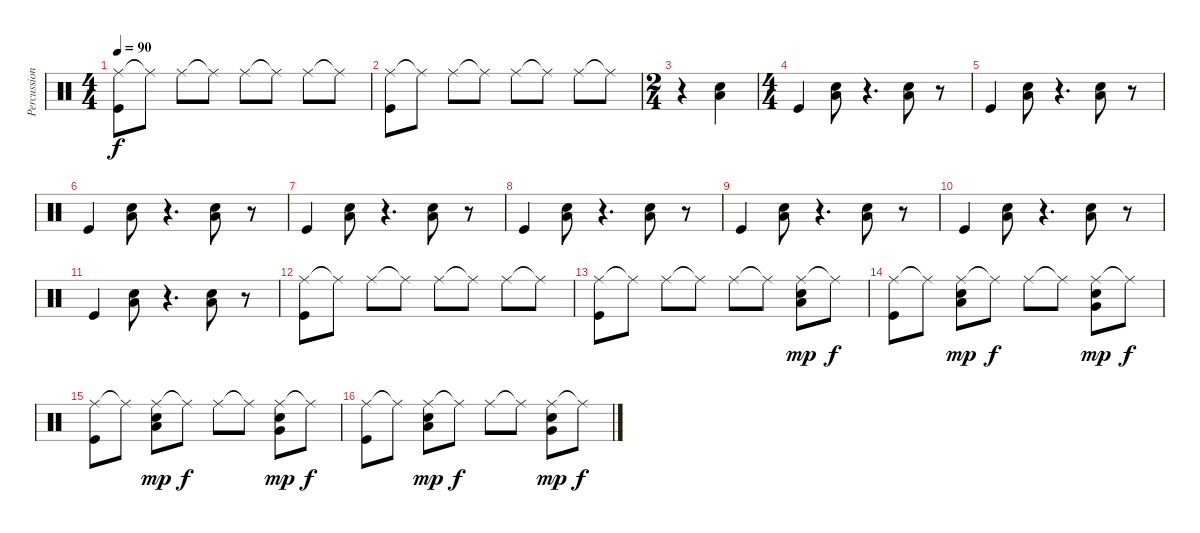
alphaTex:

\track ("Percussions" "Percussion") {instrument percussion}
\staff {score}
\articulation defaults
\ts (4 4)
\tempo 90
\clef neutral
\ks c
("Ride (middle)" "Kick (hit)").8{dy f} "Ride (middle)"{t}.8 "Ride (middle)".8 "Ride (middle)"{t}.8 "Ride (middle)".8 "Ride (middle)"{t}.8 "Ride (middle)".8 "Ride (middle)"{t}.8 |
("Ride (middle)" "Kick (hit)").8 "Ride (middle)"{t}.8 "Ride (middle)".8 "Ride (middle)"{t}.8 "Ride (middle)".8 "Ride (middle)"{t}.8 "Ride (middle)".8 "Ride (middle)"{t}.8 |
\ts (2 4)
r.4 ("Low Tom (hit)" "Snare (hit) 2").4 |
\ts (4 4)
"Kick (hit)".4 ("Low Tom (hit)" "Snare (hit) 2").8 r.4{d} ("Low Tom (hit)" "Snare (hit) 2").8 r.8 |
"Kick (hit)".4 ("Low Tom (hit)" "Snare (hit) 2").8 r.4{d} ("Low Tom (hit)" "Snare (hit) 2").8 r.8 |
"Kick (hit)".4 ("Low Tom (hit)" "Snare (hit) 2").8 r.4{d} ("Low Tom (hit)" "Snare (hit) 2").8 r.8 |
"Kick (hit)".4 ("Low Tom (hit)" "Snare (hit) 2").8 r.4{d} ("Low Tom (hit)" "Snare (hit) 2").8 r.8 |
"Kick (hit)".4 ("Low Tom (hit)" "Snare (hit) 2").8 r.4{d} ("Low Tom (hit)" "Snare (hit) 2").8 r.8 |
"Kick (hit)".4 ("Low Tom (hit)" "Snare (hit) 2").8 r.4{d} ("Low Tom (hit)" "Snare (hit) 2").8 r.8 |
"Kick (hit)".4 ("Low Tom (hit)" "Snare (hit) 2").8 r.4{d} ("Low Tom (hit)" "Snare (hit) 2").8 r.8 |
"Kick (hit)".4 ("Low Tom (hit)" "Snare (hit) 2").8 r.4{d} ("Low Tom (hit)" "Snare (hit) 2").8 r.8 |
("Ride (middle)" "Kick (hit)").8 "Ride (middle)"{t}.8 "Ride (middle)".8 "Ride (middle)"{t}.8 "Ride (middle)".8 "Ride (middle)"{t}.8 "Ride (middle)".8 "Ride (middle)"{t}.8 |
("Ride (middle)" "Kick (hit)").8 "Ride (middle)"{t}.8 "Ride (middle)".8 "Ride (middle)"{t}.8 "Ride (middle)".8 "Ride (middle)"{t}.8 ("Ride (middle)" "Snare (hit) 2" "Low Tom (hit)").8{dy mp} "Ride (middle)"{t}.8{dy f} |
("Ride (middle)" "Kick (hit)").8 "Ride (middle)"{t}.8 ("Ride (middle)" "Snare (hit) 2" "Low Tom (hit)").8{dy mp} "Ride (middle)"{t}.8{dy f} "Ride (middle)".8 "Ride (middle)"{t}.8 ("Ride (middle)" "Snare (hit) 2" "Very Low Tom (hit)").8{dy mp} "Ride (middle)"{t}.8{dy f} |
("Ride (middle)" "Kick (hit)").8 "Ride (middle)"{t}.8 ("Ride (middle)" "Snare (hit) 2" "Low Tom (hit)").8{dy mp} "Ride (middle)"{t}.8{dy f} "Ride (middle)".8 "Ride (middle)"{t}.8 ("Ride (middle)" "Snare (hit) 2" "Very Low Tom (hit)").8{dy mp} "Ride (middle)"{t}.8{dy f} |
("Ride (middle)" "Kick (hit)").8 "Ride (middle)"{t}.8 ("Ride (middle)" "Snare (hit) 2" "Low Tom (hit)").8{dy mp} "Ride (middle)"{t}.8{dy f} "Ride (middle)".8 "Ride (middle)"{t}.8 ("Ride (middle)" "Snare (hit) 2" "Very Low Tom (hit)").8{dy mp} "Ride (middle)"{t}.8{dy f}
